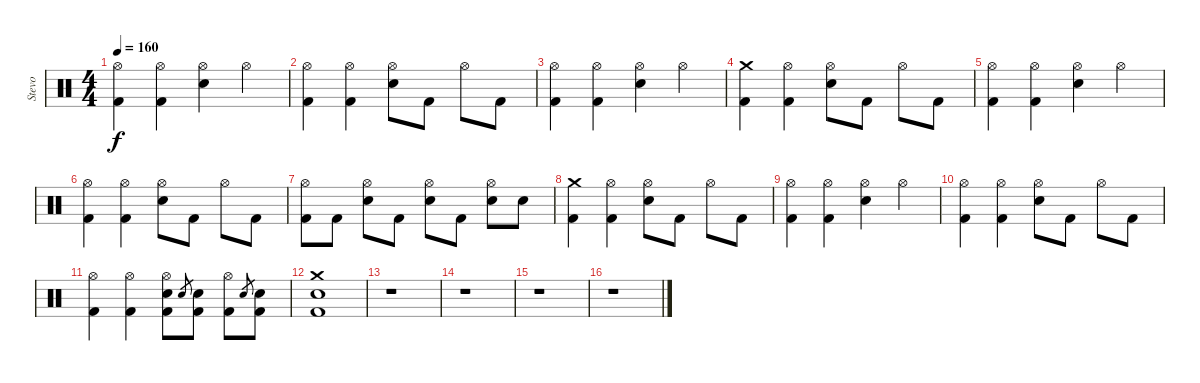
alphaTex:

\track ("Stevo" "Stevo") {instrument percussion}
\staff {score}
\articulation defaults
\ts (4 4)
\tempo 160
\clef neutral
\ks c
("Hi-Hat (open)" "Kick (hit) 2").4{dy f} ("Hi-Hat (open)" "Kick (hit) 2").4 ("Electric Snare (hit)" "Hi-Hat (open)").4 "Hi-Hat (open)".4 |
("Hi-Hat (open)" "Kick (hit) 2").4 ("Hi-Hat (open)" "Kick (hit) 2").4 ("Electric Snare (hit)" "Hi-Hat (open)").8 "Kick (hit) 2".8 "Hi-Hat (open)".8 "Kick (hit) 2".8 |
("Hi-Hat (open)" "Kick (hit) 2").4 ("Hi-Hat (open)" "Kick (hit) 2").4 ("Electric Snare (hit)" "Hi-Hat (open)").4 "Hi-Hat (open)".4 |
("Crash medium (hit)" "Kick (hit) 2").4 ("Hi-Hat (open)" "Kick (hit) 2").4 ("Electric Snare (hit)" "Hi-Hat (open)").8 "Kick (hit) 2".8 "Hi-Hat (open)".8 "Kick (hit) 2".8 |
("Hi-Hat (open)" "Kick (hit) 2").4 ("Hi-Hat (open)" "Kick (hit) 2").4 ("Electric Snare (hit)" "Hi-Hat (open)").4 "Hi-Hat (open)".4 |
("Hi-Hat (open)" "Kick (hit) 2").4 ("Hi-Hat (open)" "Kick (hit) 2").4 ("Electric Snare (hit)" "Hi-Hat (open)").8 "Kick (hit) 2".8 "Hi-Hat (open)".8 "Kick (hit) 2".8 |
("Hi-Hat (open)" "Kick (hit) 2").8 "Kick (hit) 2".8 ("Hi-Hat (open)" "Electric Snare (hit)").8 "Kick (hit) 2".8 ("Hi-Hat (open)" "Electric Snare (hit)").8 "Kick (hit) 2".8 ("Hi-Hat (open)" "Electric Snare (hit)").8 "Electric Snare (hit)".8 |
("Crash medium (hit)" "Kick (hit) 2").4 ("Hi-Hat (open)" "Kick (hit) 2").4 ("Electric Snare (hit)" "Hi-Hat (open)").8 "Kick (hit) 2".8 "Hi-Hat (open)".8 "Kick (hit) 2".8 |
("Hi-Hat (open)" "Kick (hit) 2").4 ("Hi-Hat (open)" "Kick (hit) 2").4 ("Electric Snare (hit)" "Hi-Hat (open)").4 "Hi-Hat (open)".4 |
("Hi-Hat (open)" "Kick (hit) 2").4 ("Hi-Hat (open)" "Kick (hit) 2").4 ("Electric Snare (hit)" "Hi-Hat (open)").8 "Kick (hit) 2".8 "Hi-Hat (open)".8 "Kick (hit) 2".8 |
("Hi-Hat (open)" "Kick (hit) 2").4 ("Hi-Hat (open)" "Kick (hit) 2").4 ("Electric Snare (hit)" "Hi-Hat (open)" "Kick (hit) 2").8 "Electric Snare (hit)".8{gr} ("Electric Snare (hit)" "Kick (hit) 2").8 ("Hi-Hat (open)" "Kick (hit) 2").8 "Electric Snare (hit)".8{gr} ("Electric Snare (hit)" "Kick (hit) 2").8 |
("Crash medium (hit)" "Electric Snare (hit)" "Kick (hit) 2").1 |
r.1 |
r.1 |
r.1 |
r.1
